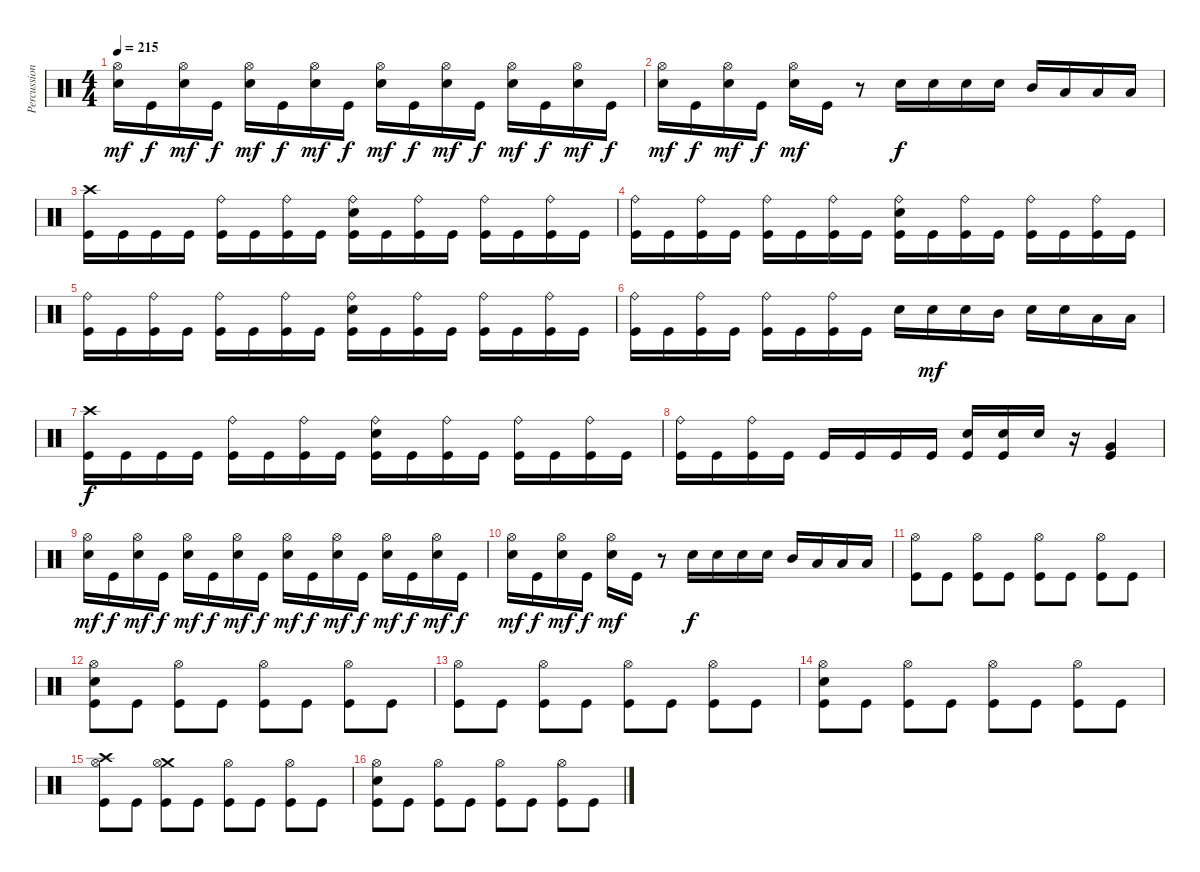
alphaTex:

\track ("Percussion" "Percussion") {instrument percussion}
\staff {score}
\articulation defaults
\ts (4 4)
\tempo 215
\clef neutral
\ks c
("Hi-Hat (open)" "Electric Snare (hit)").16{dy mf} "Kick (hit)".16{dy f} ("Hi-Hat (open)" "Electric Snare (hit)").16{dy mf} "Kick (hit)".16{dy f} ("Hi-Hat (open)" "Electric Snare (hit)").16{dy mf} "Kick (hit)".16{dy f} ("Hi-Hat (open)" "Electric Snare (hit)").16{dy mf} "Kick (hit)".16{dy f} ("Hi-Hat (open)" "Electric Snare (hit)").16{dy mf} "Kick (hit)".16{dy f} ("Hi-Hat (open)" "Electric Snare (hit)").16{dy mf} "Kick (hit)".16{dy f} ("Hi-Hat (open)" "Electric Snare (hit)").16{dy mf} "Kick (hit)".16{dy f} ("Hi-Hat (open)" "Electric Snare (hit)").16{dy mf} "Kick (hit)".16{dy f} |
("Hi-Hat (open)" "Electric Snare (hit)").16{dy mf} "Kick (hit)".16{dy f} ("Hi-Hat (open)" "Electric Snare (hit)").16{dy mf} "Kick (hit)".16{dy f} ("Hi-Hat (open)" "Electric Snare (hit)").16{dy mf} "Kick (hit)".16 r.8 "Electric Snare (hit)".16{dy f} "Electric Snare (hit)".16 "Electric Snare (hit)".16 "Electric Snare (hit)".16 "Mid Tom (hit)".16 "Low Tom (hit)".16 "Low Floor Tom (hit)".16 "Low Floor Tom (hit)".16 |
("Crash high (hit)" "Kick (hit)").16 "Kick (hit)".16 "Kick (hit)".16 "Kick (hit)".16 ("Ride (bell)" "Kick (hit)").16 "Kick (hit)".16 ("Ride (bell)" "Kick (hit)").16 "Kick (hit)".16 ("Ride (bell)" "Electric Snare (hit)" "Kick (hit)").16 "Kick (hit)".16 ("Ride (bell)" "Kick (hit)").16 "Kick (hit)".16 ("Ride (bell)" "Kick (hit)").16 "Kick (hit)".16 ("Ride (bell)" "Kick (hit)").16 "Kick (hit)".16 |
("Ride (bell)" "Kick (hit)").16 "Kick (hit)".16 ("Ride (bell)" "Kick (hit)").16 "Kick (hit)".16 ("Ride (bell)" "Kick (hit)").16 "Kick (hit)".16 ("Ride (bell)" "Kick (hit)").16 "Kick (hit)".16 ("Ride (bell)" "Electric Snare (hit)" "Kick (hit)").16 "Kick (hit)".16 ("Ride (bell)" "Kick (hit)").16 "Kick (hit)".16 ("Ride (bell)" "Kick (hit)").16 "Kick (hit)".16 ("Ride (bell)" "Kick (hit)").16 "Kick (hit)".16 |
("Ride (bell)" "Kick (hit)").16 "Kick (hit)".16 ("Ride (bell)" "Kick (hit)").16 "Kick (hit)".16 ("Ride (bell)" "Kick (hit)").16 "Kick (hit)".16 ("Ride (bell)" "Kick (hit)").16 "Kick (hit)".16 ("Ride (bell)" "Electric Snare (hit)" "Kick (hit)").16 "Kick (hit)".16 ("Ride (bell)" "Kick (hit)").16 "Kick (hit)".16 ("Ride (bell)" "Kick (hit)").16 "Kick (hit)".16 ("Ride (bell)" "Kick (hit)").16 "Kick (hit)".16 |
("Ride (bell)" "Kick (hit)").16 "Kick (hit)".16 ("Ride (bell)" "Kick (hit)").16 "Kick (hit)".16 ("Ride (bell)" "Kick (hit)").16 "Kick (hit)".16 ("Ride (bell)" "Kick (hit)").16 "Kick (hit)".16 "Electric Snare (hit)".16 "Electric Snare (hit)".16{dy mf} "Electric Snare (hit)".16 "Mid Tom (hit)".16 "Electric Snare (hit)".16 "Electric Snare (hit)".16 "Low Floor Tom (hit)".16 "Low Floor Tom (hit)".16 |
("Crash high (hit)" "Kick (hit)").16{dy f} "Kick (hit)".16 "Kick (hit)".16 "Kick (hit)".16 ("Ride (bell)" "Kick (hit)").16 "Kick (hit)".16 ("Ride (bell)" "Kick (hit)").16 "Kick (hit)".16 ("Ride (bell)" "Electric Snare (hit)" "Kick (hit)").16 "Kick (hit)".16 ("Ride (bell)" "Kick (hit)").16 "Kick (hit)".16 ("Ride (bell)" "Kick (hit)").16 "Kick (hit)".16 ("Ride (bell)" "Kick (hit)").16 "Kick (hit)".16 |
("Ride (bell)" "Kick (hit)").16 "Kick (hit)".16 ("Ride (bell)" "Kick (hit)").16 "Kick (hit)".16 "Kick (hit)".16 "Kick (hit)".16 "Kick (hit)".16 "Kick (hit)".16 ("Electric Snare (hit)" "Kick (hit)").16 ("Electric Snare (hit)" "Kick (hit)").16 "Electric Snare (hit)".16 r.16 ("Very Low Tom (hit)" "Kick (hit)").4 |
("Hi-Hat (open)" "Electric Snare (hit)").16{dy mf} "Kick (hit)".16{dy f} ("Hi-Hat (open)" "Electric Snare (hit)").16{dy mf} "Kick (hit)".16{dy f} ("Hi-Hat (open)" "Electric Snare (hit)").16{dy mf} "Kick (hit)".16{dy f} ("Hi-Hat (open)" "Electric Snare (hit)").16{dy mf} "Kick (hit)".16{dy f} ("Hi-Hat (open)" "Electric Snare (hit)").16{dy mf} "Kick (hit)".16{dy f} ("Hi-Hat (open)" "Electric Snare (hit)").16{dy mf} "Kick (hit)".16{dy f} ("Hi-Hat (open)" "Electric Snare (hit)").16{dy mf} "Kick (hit)".16{dy f} ("Hi-Hat (open)" "Electric Snare (hit)").16{dy mf} "Kick (hit)".16{dy f} |
("Hi-Hat (open)" "Electric Snare (hit)").16{dy mf} "Kick (hit)".16{dy f} ("Hi-Hat (open)" "Electric Snare (hit)").16{dy mf} "Kick (hit)".16{dy f} ("Hi-Hat (open)" "Electric Snare (hit)").16{dy mf} "Kick (hit)".16 r.8 "Electric Snare (hit)".16{dy f} "Electric Snare (hit)".16 "Electric Snare (hit)".16 "Electric Snare (hit)".16 "Mid Tom (hit)".16 "Low Tom (hit)".16 "Low Floor Tom (hit)".16 "Low Floor Tom (hit)".16 |
("Hi-Hat (open)" "Kick (hit)").8 "Kick (hit)".8 ("Hi-Hat (open)" "Kick (hit)").8 "Kick (hit)".8 ("Hi-Hat (open)" "Kick (hit)").8 "Kick (hit)".8 ("Hi-Hat (open)" "Kick (hit)").8 "Kick (hit)".8 |
("Hi-Hat (open)" "Electric Snare (hit)" "Kick (hit)").8 "Kick (hit)".8 ("Hi-Hat (open)" "Kick (hit)").8 "Kick (hit)".8 ("Hi-Hat (open)" "Kick (hit)").8 "Kick (hit)".8 ("Hi-Hat (open)" "Kick (hit)").8 "Kick (hit)".8 |
("Hi-Hat (open)" "Kick (hit)").8 "Kick (hit)".8 ("Hi-Hat (open)" "Kick (hit)").8 "Kick (hit)".8 ("Hi-Hat (open)" "Kick (hit)").8 "Kick (hit)".8 ("Hi-Hat (open)" "Kick (hit)").8 "Kick (hit)".8 |
("Hi-Hat (open)" "Electric Snare (hit)" "Kick (hit)").8 "Kick (hit)".8 ("Hi-Hat (open)" "Kick (hit)").8 "Kick (hit)".8 ("Hi-Hat (open)" "Kick (hit)").8 "Kick (hit)".8 ("Hi-Hat (open)" "Kick (hit)").8 "Kick (hit)".8 |
("Crash high (hit)" "Hi-Hat (open)" "Kick (hit)").8 "Kick (hit)".8 ("Crash medium (hit)" "Hi-Hat (open)" "Kick (hit)").8 "Kick (hit)".8 ("Hi-Hat (open)" "Kick (hit)").8 "Kick (hit)".8 ("Hi-Hat (open)" "Kick (hit)").8 "Kick (hit)".8 |
("Hi-Hat (open)" "Electric Snare (hit)" "Kick (hit)").8 "Kick (hit)".8 ("Hi-Hat (open)" "Kick (hit)").8 "Kick (hit)".8 ("Hi-Hat (open)" "Kick (hit)").8 "Kick (hit)".8 ("Hi-Hat (open)" "Kick (hit)").8 "Kick (hit)".8
